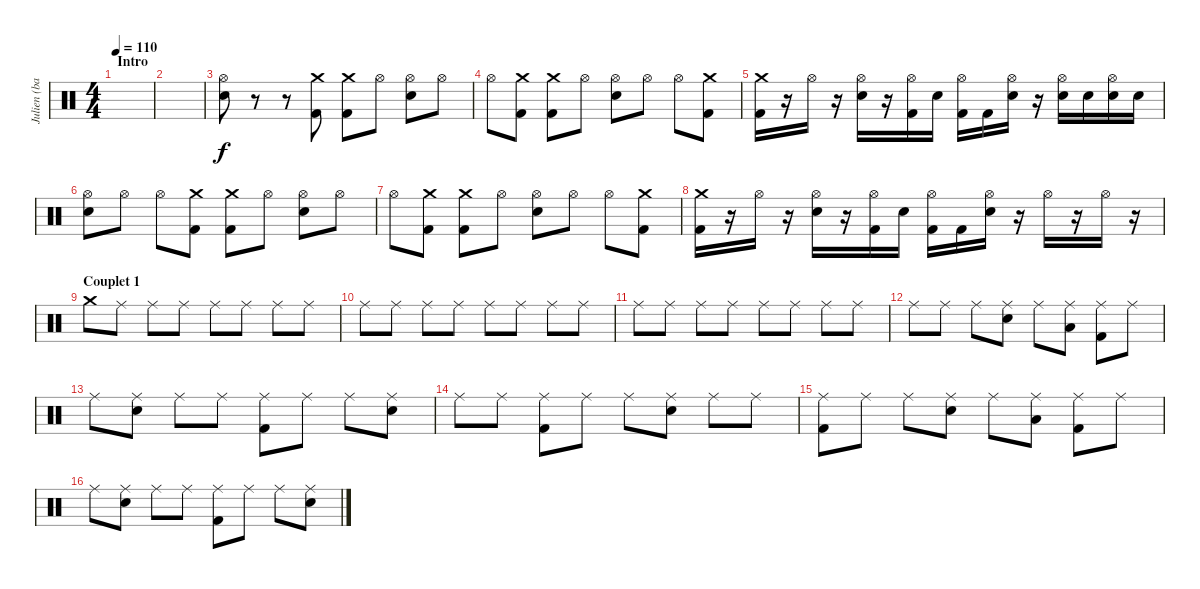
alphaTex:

\track ("Julien (batterie)" "Julien (ba") {instrument percussion}
\staff {score}
\articulation defaults
\ts (4 4)
\section ("" "Intro")
\tempo 110
\clef neutral
\ks c
|
|
("Hi-Hat (open)" "Electric Snare (hit)").8 r.8 r.8 ("Crash medium (hit)" "Kick (hit) 2").8 ("Crash medium (hit)" "Kick (hit) 2").8 "Hi-Hat (open)".8 ("Hi-Hat (open)" "Electric Snare (hit)").8 "Hi-Hat (open)".8 |
"Hi-Hat (open)".8 ("Crash medium (hit)" "Kick (hit) 2").8 ("Crash medium (hit)" "Kick (hit) 2").8 "Hi-Hat (open)".8 ("Hi-Hat (open)" "Electric Snare (hit)").8 "Hi-Hat (open)".8 "Hi-Hat (open)".8 ("Crash medium (hit)" "Kick (hit) 2").8 |
("Crash medium (hit)" "Kick (hit) 2").16 r.16 "Hi-Hat (open)".16 r.16 ("Hi-Hat (open)" "Electric Snare (hit)").16 r.16 ("Hi-Hat (open)" "Kick (hit) 2").16 "Electric Snare (hit)".16 ("Hi-Hat (open)" "Kick (hit) 2").16 "Kick (hit) 2".16 ("Hi-Hat (open)" "Electric Snare (hit)").16 r.16 ("Hi-Hat (open)" "Electric Snare (hit)").16 "Electric Snare (hit)".16 ("Hi-Hat (open)" "Electric Snare (hit)").16 "Electric Snare (hit)".16 |
("Hi-Hat (open)" "Electric Snare (hit)").8 "Hi-Hat (open)".8 "Hi-Hat (open)".8 ("Crash medium (hit)" "Kick (hit) 2").8 ("Crash medium (hit)" "Kick (hit) 2").8 "Hi-Hat (open)".8 ("Hi-Hat (open)" "Electric Snare (hit)").8 "Hi-Hat (open)".8 |
"Hi-Hat (open)".8 ("Crash medium (hit)" "Kick (hit) 2").8 ("Crash medium (hit)" "Kick (hit) 2").8 "Hi-Hat (open)".8 ("Hi-Hat (open)" "Electric Snare (hit)").8 "Hi-Hat (open)".8 "Hi-Hat (open)".8 ("Crash medium (hit)" "Kick (hit) 2").8 |
("Crash medium (hit)" "Kick (hit) 2").16 r.16 "Hi-Hat (open)".16 r.16 ("Hi-Hat (open)" "Electric Snare (hit)").16 r.16 ("Hi-Hat (open)" "Kick (hit) 2").16 "Electric Snare (hit)".16 ("Hi-Hat (open)" "Kick (hit) 2").16 "Kick (hit) 2".16 ("Hi-Hat (open)" "Electric Snare (hit)").16 r.16 "Hi-Hat (open)".16 r.16 "Hi-Hat (open)".16 r.16 |
\section ("" "Couplet 1")
"Crash medium (hit)".8 "Ride (middle)".8 "Ride (middle)".8 "Ride (middle)".8 "Ride (middle)".8 "Ride (middle)".8 "Ride (middle)".8 "Ride (middle)".8 |
"Ride (middle)".8 "Ride (middle)".8 "Ride (middle)".8 "Ride (middle)".8 "Ride (middle)".8 "Ride (middle)".8 "Ride (middle)".8 "Ride (middle)".8 |
"Ride (middle)".8 "Ride (middle)".8 "Ride (middle)".8 "Ride (middle)".8 "Ride (middle)".8 "Ride (middle)".8 "Ride (middle)".8 "Ride (middle)".8 |
"Ride (middle)".8 "Ride (middle)".8 "Ride (middle)".8 ("Ride (middle)" "Electric Snare (hit)").8 "Ride (middle)".8 ("Ride (middle)" "Low Tom (hit)").8 ("Ride (middle)" "Kick (hit) 2").8 "Ride (middle)".8 |
"Ride (middle)".8 ("Ride (middle)" "Electric Snare (hit)").8 "Ride (middle)".8 "Ride (middle)".8 ("Ride (middle)" "Kick (hit) 2").8 "Ride (middle)".8 "Ride (middle)".8 ("Ride (middle)" "Electric Snare (hit)").8 |
"Ride (middle)".8 "Ride (middle)".8 ("Ride (middle)" "Kick (hit) 2").8 "Ride (middle)".8 "Ride (middle)".8 ("Ride (middle)" "Electric Snare (hit)").8 "Ride (middle)".8 "Ride (middle)".8 |
("Ride (middle)" "Kick (hit) 2").8 "Ride (middle)".8 "Ride (middle)".8 ("Ride (middle)" "Electric Snare (hit)").8 "Ride (middle)".8 ("Ride (middle)" "Low Tom (hit)").8 ("Ride (middle)" "Kick (hit) 2").8 "Ride (middle)".8 |
"Ride (middle)".8 ("Ride (middle)" "Electric Snare (hit)").8 "Ride (middle)".8 "Ride (middle)".8 ("Ride (middle)" "Kick (hit) 2").8 "Ride (middle)".8 "Ride (middle)".8 ("Ride (middle)" "Electric Snare (hit)").8
